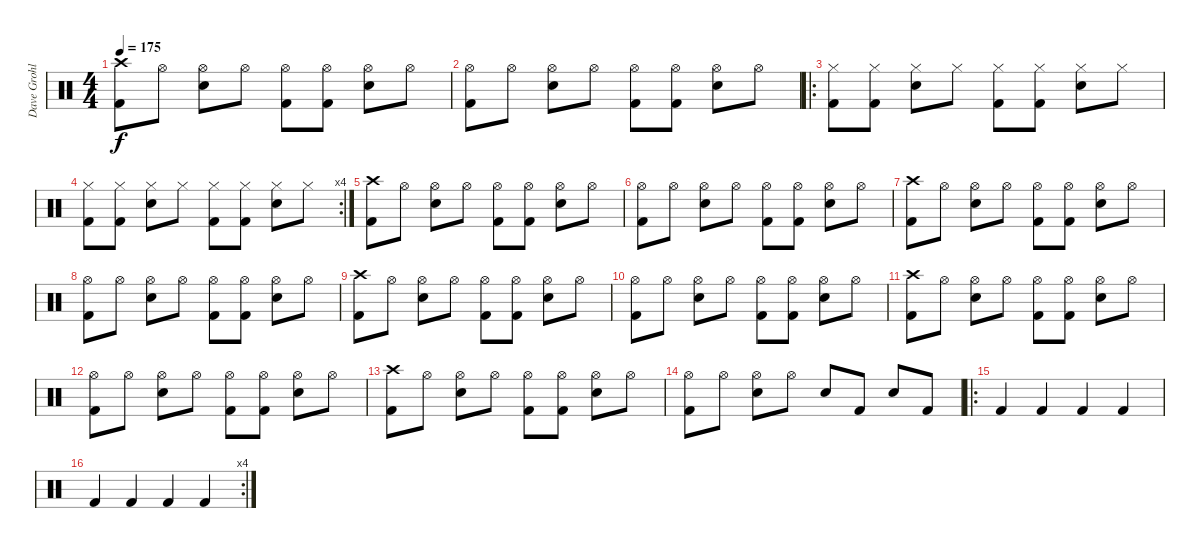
\track ("Dave Grohl" "Dave Grohl") {instrument percussion}
\staff {score}
\articulation defaults
\ts (4 4)
\tempo 175
\clef neutral
\ks c
("Crash high (hit)" "Kick (hit) 2").8{dy f} "Hi-Hat (open)".8 ("Hi-Hat (open)" "Electric Snare (hit)").8 "Hi-Hat (open)".8 ("Hi-Hat (open)" "Kick (hit) 2").8 ("Hi-Hat (open)" "Kick (hit) 2").8 ("Hi-Hat (open)" "Electric Snare (hit)").8 "Hi-Hat (open)".8 |
("Hi-Hat (open)" "Kick (hit) 2").8 "Hi-Hat (open)".8 ("Hi-Hat (open)" "Electric Snare (hit)").8 "Hi-Hat (open)".8 ("Hi-Hat (open)" "Kick (hit) 2").8 ("Hi-Hat (open)" "Kick (hit) 2").8 ("Hi-Hat (open)" "Electric Snare (hit)").8 "Hi-Hat (open)".8 |
\ro
("Hi-Hat (closed)" "Kick (hit) 2").8 ("Hi-Hat (closed)" "Kick (hit) 2").8 ("Hi-Hat (closed)" "Electric Snare (hit)").8 "Hi-Hat (closed)".8 ("Hi-Hat (closed)" "Kick (hit) 2").8 ("Hi-Hat (closed)" "Kick (hit) 2").8 ("Hi-Hat (closed)" "Electric Snare (hit)").8 "Hi-Hat (closed)".8 |
\rc 4
("Hi-Hat (closed)" "Kick (hit) 2").8 ("Hi-Hat (closed)" "Kick (hit) 2").8 ("Hi-Hat (closed)" "Electric Snare (hit)").8 "Hi-Hat (closed)".8 ("Hi-Hat (closed)" "Kick (hit) 2").8 ("Hi-Hat (closed)" "Kick (hit) 2").8 ("Hi-Hat (closed)" "Electric Snare (hit)").8 "Hi-Hat (closed)".8 |
("Crash high (hit)" "Kick (hit) 2").8 "Hi-Hat (open)".8 ("Hi-Hat (open)" "Electric Snare (hit)").8 "Hi-Hat (open)".8 ("Hi-Hat (open)" "Kick (hit) 2").8 ("Hi-Hat (open)" "Kick (hit) 2").8 ("Hi-Hat (open)" "Electric Snare (hit)").8 "Hi-Hat (open)".8 |
("Hi-Hat (open)" "Kick (hit) 2").8 "Hi-Hat (open)".8 ("Hi-Hat (open)" "Electric Snare (hit)").8 "Hi-Hat (open)".8 ("Hi-Hat (open)" "Kick (hit) 2").8 ("Hi-Hat (open)" "Kick (hit) 2").8 ("Hi-Hat (open)" "Electric Snare (hit)").8 "Hi-Hat (open)".8 |
("Crash high (hit)" "Kick (hit) 2").8 "Hi-Hat (open)".8 ("Hi-Hat (open)" "Electric Snare (hit)").8 "Hi-Hat (open)".8 ("Hi-Hat (open)" "Kick (hit) 2").8 ("Hi-Hat (open)" "Kick (hit) 2").8 ("Hi-Hat (open)" "Electric Snare (hit)").8 "Hi-Hat (open)".8 |
("Hi-Hat (open)" "Kick (hit) 2").8 "Hi-Hat (open)".8 ("Hi-Hat (open)" "Electric Snare (hit)").8 "Hi-Hat (open)".8 ("Hi-Hat (open)" "Kick (hit) 2").8 ("Hi-Hat (open)" "Kick (hit) 2").8 ("Hi-Hat (open)" "Electric Snare (hit)").8 "Hi-Hat (open)".8 |
("Crash high (hit)" "Kick (hit) 2").8 "Hi-Hat (open)".8 ("Hi-Hat (open)" "Electric Snare (hit)").8 "Hi-Hat (open)".8 ("Hi-Hat (open)" "Kick (hit) 2").8 ("Hi-Hat (open)" "Kick (hit) 2").8 ("Hi-Hat (open)" "Electric Snare (hit)").8 "Hi-Hat (open)".8 |
("Hi-Hat (open)" "Kick (hit) 2").8 "Hi-Hat (open)".8 ("Hi-Hat (open)" "Electric Snare (hit)").8 "Hi-Hat (open)".8 ("Hi-Hat (open)" "Kick (hit) 2").8 ("Hi-Hat (open)" "Kick (hit) 2").8 ("Hi-Hat (open)" "Electric Snare (hit)").8 "Hi-Hat (open)".8 |
("Crash high (hit)" "Kick (hit) 2").8 "Hi-Hat (open)".8 ("Hi-Hat (open)" "Electric Snare (hit)").8 "Hi-Hat (open)".8 ("Hi-Hat (open)" "Kick (hit) 2").8 ("Hi-Hat (open)" "Kick (hit) 2").8 ("Hi-Hat (open)" "Electric Snare (hit)").8 "Hi-Hat (open)".8 |
("Hi-Hat (open)" "Kick (hit) 2").8 "Hi-Hat (open)".8 ("Hi-Hat (open)" "Electric Snare (hit)").8 "Hi-Hat (open)".8 ("Hi-Hat (open)" "Kick (hit) 2").8 ("Hi-Hat (open)" "Kick (hit) 2").8 ("Hi-Hat (open)" "Electric Snare (hit)").8 "Hi-Hat (open)".8 |
("Crash high (hit)" "Kick (hit) 2").8 "Hi-Hat (open)".8 ("Hi-Hat (open)" "Electric Snare (hit)").8 "Hi-Hat (open)".8 ("Hi-Hat (open)" "Kick (hit) 2").8 ("Hi-Hat (open)" "Kick (hit) 2").8 ("Hi-Hat (open)" "Electric Snare (hit)").8 "Hi-Hat (open)".8 |
("Hi-Hat (open)" "Kick (hit) 2").8 "Hi-Hat (open)".8 ("Hi-Hat (open)" "Electric Snare (hit)").8 "Hi-Hat (open)".8 "Electric Snare (hit)".8 "Kick (hit) 2".8 "Electric Snare (hit)".8 "Kick (hit) 2".8 |
\ro "Kick (hit) 2".4 "Kick (hit) 2".4 "Kick (hit) 2".4 "Kick (hit) 2".4
|
\rc 4 "Kick (hit) 2".4 "Kick (hit) 2".4 "Kick (hit) 2".4 "Kick (hit) 2".4
